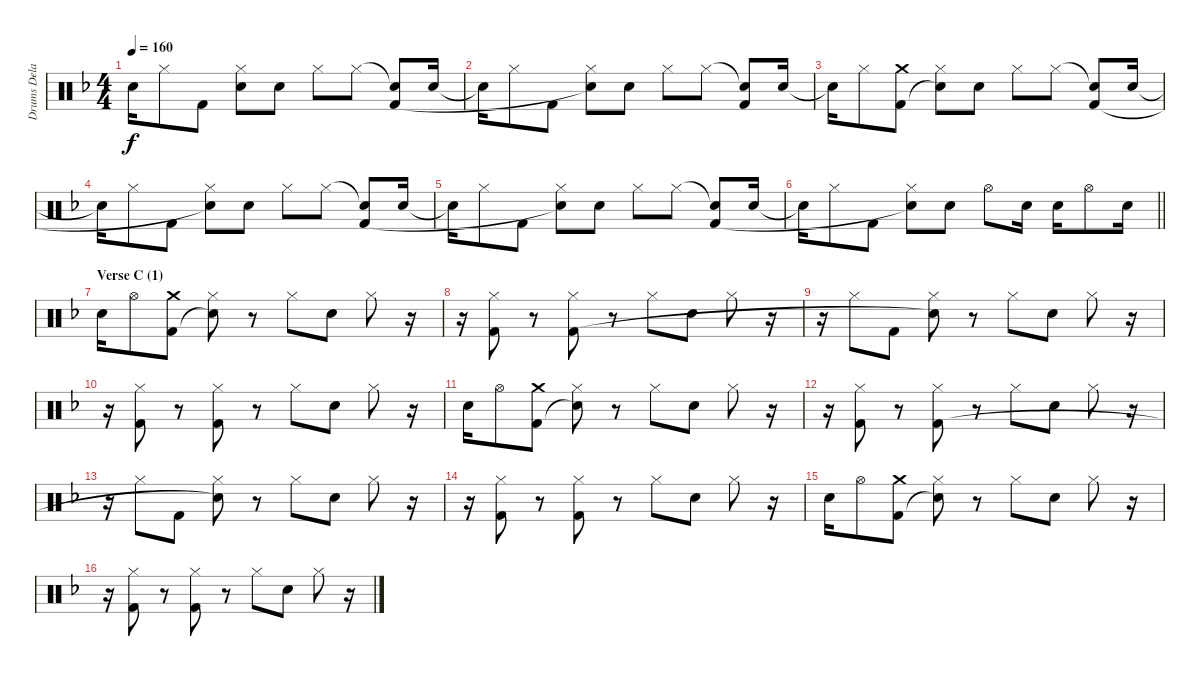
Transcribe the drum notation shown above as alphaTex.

\track ("Drums Delay 2" "Drums Dela") {instrument percussion}
\staff {score}
\articulation defaults
\ts (4 4)
\tempo 160
\clef neutral
\ks f "Snare (hit)"{t}.16{dy f} "Hi-Hat (closed)".8 "Kick (hit) 2".8
("Hi-Hat (closed)" "Snare (hit)"{t}).8 "Electric Snare (hit)".8 "Hi-Hat (closed)".8 "Hi-Hat (closed)".8 ("Snare (hit)"{t} "Kick (hit) 2").8 "Electric Snare (hit)".16 |
"Snare (hit)"{t}.16 "Hi-Hat (closed)".8 "Kick (hit) 2".8 ("Hi-Hat (closed)" "Snare (hit)"{t}).8 "Electric Snare (hit)".8 "Hi-Hat (closed)".8 "Hi-Hat (closed)".8 ("Snare (hit)"{t} "Kick (hit) 2").8 "Electric Snare (hit)".16 |
"Snare (hit)"{t}.16 "Hi-Hat (closed)".8 ("Crash medium (hit)" "Kick (hit) 2").8 ("Hi-Hat (closed)" "Snare (hit)"{t}).8 "Electric Snare (hit)".8 "Hi-Hat (closed)".8 "Hi-Hat (closed)".8 ("Snare (hit)"{t} "Kick (hit) 2").8 "Electric Snare (hit)".16 |
"Snare (hit)"{t}.16 "Hi-Hat (closed)".8 "Kick (hit) 2".8 ("Hi-Hat (closed)" "Snare (hit)"{t}).8 "Electric Snare (hit)".8 "Hi-Hat (closed)".8 "Hi-Hat (closed)".8 ("Snare (hit)"{t} "Kick (hit) 2").8 "Electric Snare (hit)".16 |
"Snare (hit)"{t}.16 "Hi-Hat (closed)".8 "Kick (hit) 2".8 ("Hi-Hat (closed)" "Snare (hit)"{t}).8 "Electric Snare (hit)".8 "Hi-Hat (closed)".8 "Hi-Hat (closed)".8 ("Snare (hit)"{t} "Kick (hit) 2").8 "Electric Snare (hit)".16 |
\barLineRight lightlight "Snare (hit)"{t}.16 "Hi-Hat (closed)".8 "Kick (hit) 2".8
("Hi-Hat (closed)" "Snare (hit)"{t}).8 "Electric Snare (hit)".8 "Hi-Hat (open)".8 "Electric Snare (hit)".16 "Electric Snare (hit)".16 "Hi-Hat (open)".8 "Electric Snare (hit)".16 |
\section ("" "Verse C (1)")
"Electric Snare (hit)".16 "Hi-Hat (open)".8 ("Crash medium (hit)" "Kick (hit) 2").8 ("Hi-Hat (closed)" "Snare (hit)"{t}).8 r.8 "Hi-Hat (closed)".8 "Electric Snare (hit)".8 "Hi-Hat (closed)".8 r.16 |
r.16 ("Hi-Hat (closed)" "Kick (hit) 2").8 r.8 ("Hi-Hat (closed)" "Kick (hit) 2").8 r.8 "Hi-Hat (closed)".8 "Electric Snare (hit)".8 "Hi-Hat (closed)".8 r.16 |
r.16 "Hi-Hat (closed)".8 "Kick (hit) 2".8 ("Hi-Hat (closed)" "Snare (hit)"{t}).8 r.8 "Hi-Hat (closed)".8 "Electric Snare (hit)".8 "Hi-Hat (closed)".8 r.16 |
r.16 ("Hi-Hat (closed)" "Kick (hit) 2").8 r.8 ("Hi-Hat (closed)" "Kick (hit) 2").8 r.8 "Hi-Hat (closed)".8 "Electric Snare (hit)".8 "Hi-Hat (closed)".8 r.16 |
"Electric Snare (hit)".16 "Hi-Hat (open)".8 ("Crash medium (hit)" "Kick (hit) 2").8 ("Hi-Hat (closed)" "Snare (hit)"{t}).8 r.8 "Hi-Hat (closed)".8 "Electric Snare (hit)".8 "Hi-Hat (closed)".8 r.16 |
r.16 ("Hi-Hat (closed)" "Kick (hit) 2").8 r.8 ("Hi-Hat (closed)" "Kick (hit) 2").8 r.8 "Hi-Hat (closed)".8 "Electric Snare (hit)".8 "Hi-Hat (closed)".8 r.16 |
r.16 "Hi-Hat (closed)".8 "Kick (hit) 2".8 ("Hi-Hat (closed)" "Snare (hit)"{t}).8 r.8 "Hi-Hat (closed)".8 "Electric Snare (hit)".8 "Hi-Hat (closed)".8 r.16 |
r.16 ("Hi-Hat (closed)" "Kick (hit) 2").8 r.8 ("Hi-Hat (closed)" "Kick (hit) 2").8 r.8 "Hi-Hat (closed)".8 "Electric Snare (hit)".8 "Hi-Hat (closed)".8 r.16 |
"Electric Snare (hit)".16 "Hi-Hat (open)".8 ("Crash medium (hit)" "Kick (hit) 2").8 ("Hi-Hat (closed)" "Snare (hit)"{t}).8 r.8 "Hi-Hat (closed)".8 "Electric Snare (hit)".8 "Hi-Hat (closed)".8 r.16 |
r.16 ("Hi-Hat (closed)" "Kick (hit) 2").8 r.8 ("Hi-Hat (closed)" "Kick (hit) 2").8 r.8 "Hi-Hat (closed)".8 "Electric Snare (hit)".8 "Hi-Hat (closed)".8 r.16
